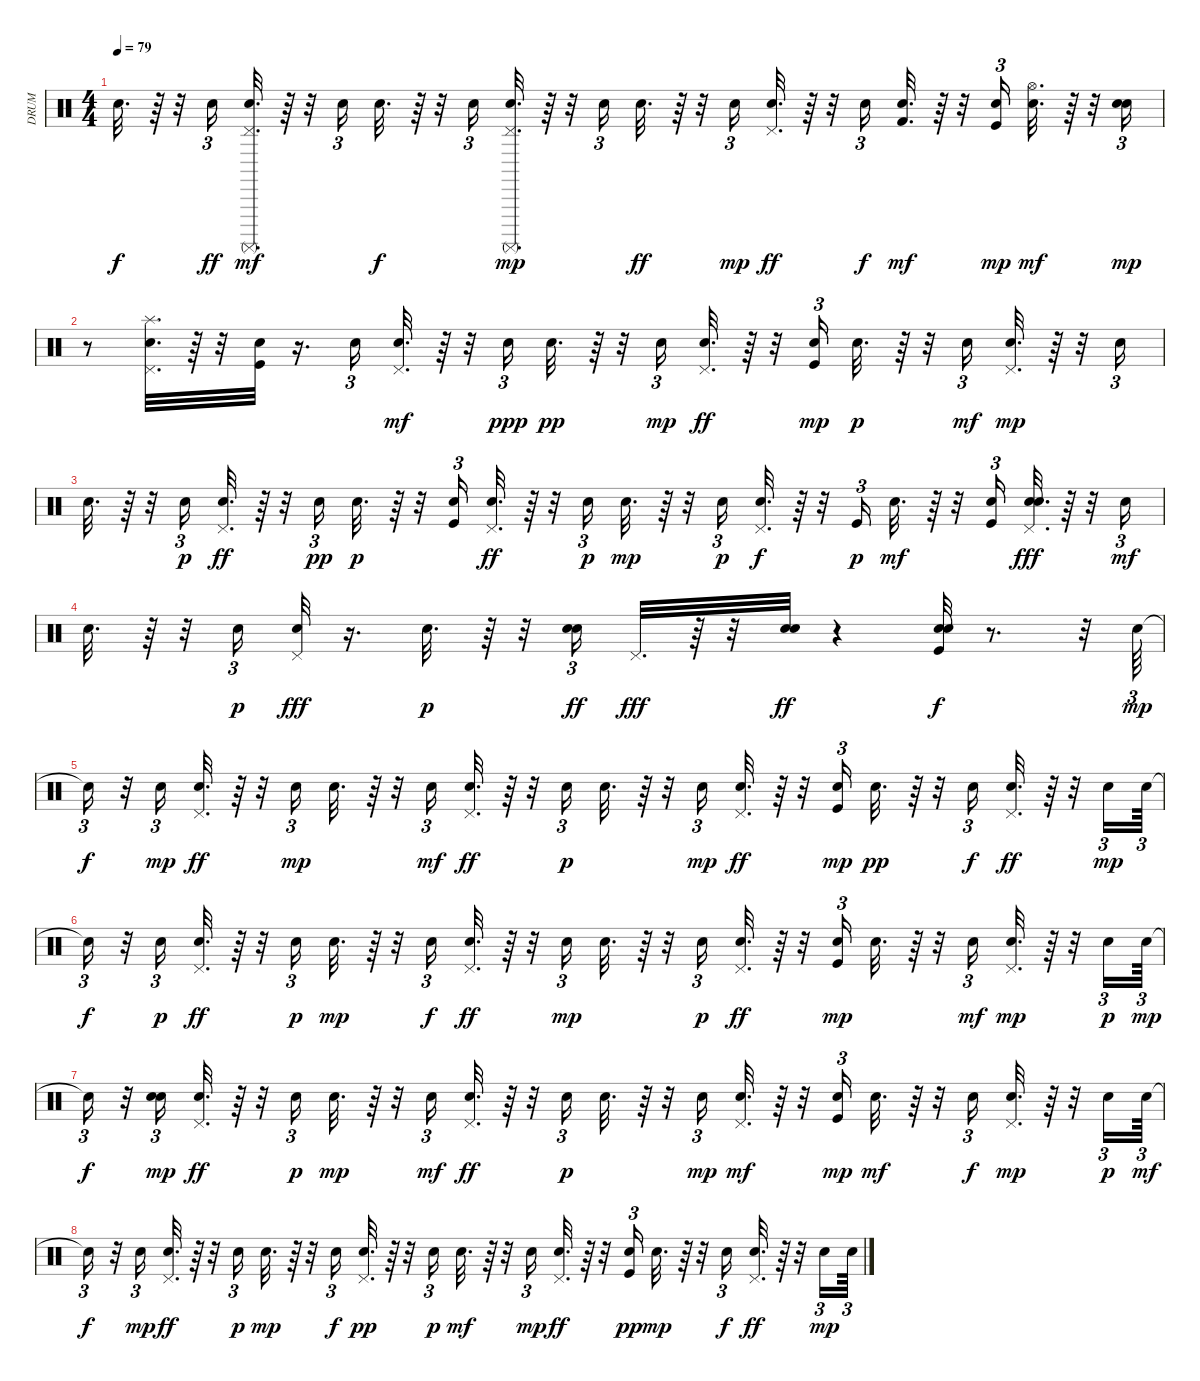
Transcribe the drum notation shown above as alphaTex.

\track ("DRUM" "DRUM") {instrument percussion}
\staff {score}
\articulation defaults
\ts (4 4)
\tempo 79
\clef neutral
\ks c "Hand Clap (hit)".32{d dy f}
r.64 r.32 "Hand Clap (hit)".16{tu (3 2) dy ff} ("Snare (hit) 2" "Surdo (mute)" "Pedal Hi-Hat (hit)").32{d dy mf} r.64 r.32 "Snare (hit) 2".16{tu (3 2)} "Hand Clap (hit)".32{d dy f} r.64 r.32 "Hand Clap (hit)".16{tu (3 2)} ("Surdo (mute)" "Pedal Hi-Hat (hit)" "Snare (hit) 2").32{d dy mp} r.64 r.32 "Snare (hit) 2".16{tu (3 2)} "Hand Clap (hit)".32{d dy ff} r.64 r.32 "Snare (hit) 2".16{tu (3 2) dy mp} ("Pedal Hi-Hat (hit)" "Hand Clap (hit)").32{d dy ff} r.64 r.32 "Hand Clap (hit)".16{tu (3 2) dy f} ("Kick (hit) 2" "Snare (hit) 2").32{d dy mf} r.64 r.32 ("Hand Clap (hit)" "Kick (hit)").16{tu (3 2) dy mp} ("Hand Clap (hit)" "Hi-Hat (open)").32{d dy mf} r.64 r.32 ("Hand Clap (hit)" "Snare (hit) 2").16{tu (3 2) dy mp} |
r.8 ("Hand Clap (hit)" "Pedal Hi-Hat (hit)" "Splash (hit)").32{d} r.64 r.32 ("Snare (hit) 2" "Kick (hit)").32 r.16{d} "Snare (hit) 2".16{tu (3 2)} ("Hand Clap (hit)" "Pedal Hi-Hat (hit)").32{d dy mf} r.64 r.32 "Snare (hit) 2".16{tu (3 2) dy ppp} "Snare (hit) 2".32{d dy pp} r.64 r.32 "Snare (hit) 2".16{tu (3 2) dy mp} ("Snare (hit) 2" "Pedal Hi-Hat (hit)").32{d dy ff} r.64 r.32 ("Snare (hit) 2" "Kick (hit)").16{tu (3 2) dy mp} "Snare (hit) 2".32{d dy p} r.64 r.32 "Hand Clap (hit)".16{tu (3 2) dy mf} ("Snare (hit) 2" "Pedal Hi-Hat (hit)").32{d dy mp} r.64 r.32 "Snare (hit) 2".16{tu (3 2)} |
"Snare (hit) 2".32{d} r.64 r.32 "Snare (hit) 2".16{tu (3 2) dy p} ("Pedal Hi-Hat (hit)" "Snare (hit) 2").32{d dy ff} r.64 r.32 "Snare (hit) 2".16{tu (3 2) dy pp} "Snare (hit) 2".32{d dy p} r.64 r.32 ("Hand Clap (hit)" "Kick (hit)").16{tu (3 2)} ("Snare (hit) 2" "Pedal Hi-Hat (hit)").32{d dy ff} r.64 r.32 "Snare (hit) 2".16{tu (3 2) dy p} "Snare (hit) 2".32{d dy mp} r.64 r.32 "Snare (hit) 2".16{tu (3 2) dy p} ("Pedal Hi-Hat (hit)" "Snare (hit) 2").32{d dy f} r.64 r.32 "Kick (hit)".16{tu (3 2) dy p} "Snare (hit) 2".32{d dy mf} r.64 r.32 ("Kick (hit)" "Hand Clap (hit)").16{tu (3 2)} ("Snare (hit) 2" "Hand Clap (hit)" "Pedal Hi-Hat (hit)").32{d dy fff} r.64 r.32 "Hand Clap (hit)".16{tu (3 2) dy mf} |
"Snare (hit) 2".32{d} r.64 r.32 "Snare (hit) 2".16{tu (3 2) dy p} ("Hand Clap (hit)" "Pedal Hi-Hat (hit)").32{dy fff} r.16{d} "Snare (hit) 2".32{d dy p} r.64 r.32 ("Snare (hit) 2" "Hand Clap (hit)").16{tu (3 2) dy ff} "Pedal Hi-Hat (hit)".32{d dy fff} r.64 r.32 ("Snare (hit) 2" "Hand Clap (hit)").32{dy ff} r.4 ("Kick (hit)" "Snare (hit) 2" "Hand Clap (hit)").32{dy f} r.8{d} r.32 "Snare (hit) 2".64{tu (3 2) dy mp} |
"Snare (hit)"{t}.16{tu (3 2) dy f} r.32 "Snare (hit) 2".16{tu (3 2) dy mp} ("Snare (hit) 2" "Pedal Hi-Hat (hit)").32{d dy ff} r.64 r.32 "Snare (hit) 2".16{tu (3 2) dy mp} "Snare (hit) 2".32{d} r.64 r.32 "Snare (hit) 2".16{tu (3 2) dy mf} ("Pedal Hi-Hat (hit)" "Snare (hit) 2").32{d dy ff} r.64 r.32 "Snare (hit) 2".16{tu (3 2) dy p} "Snare (hit) 2".32{d} r.64 r.32 "Snare (hit) 2".16{tu (3 2) dy mp} ("Snare (hit) 2" "Pedal Hi-Hat (hit)").32{d dy ff} r.64 r.32 ("Snare (hit) 2" "Kick (hit)").16{tu (3 2) dy mp} "Snare (hit) 2".32{d dy pp} r.64 r.32 "Hand Clap (hit)".16{tu (3 2) dy f} ("Snare (hit) 2" "Pedal Hi-Hat (hit)").32{d dy ff} r.64 r.32 "Snare (hit) 2".16{tu (3 2) dy mp} "Snare (hit) 2".64{tu (3 2)} |
"Snare (hit)"{t}.16{tu (3 2) dy f} r.32 "Snare (hit) 2".16{tu (3 2) dy p} ("Snare (hit) 2" "Pedal Hi-Hat (hit)").32{d dy ff} r.64 r.32 "Snare (hit) 2".16{tu (3 2) dy p} "Snare (hit) 2".32{d dy mp} r.64 r.32 "Snare (hit) 2".16{tu (3 2) dy f} ("Snare (hit) 2" "Pedal Hi-Hat (hit)").32{d dy ff} r.64 r.32 "Snare (hit) 2".16{tu (3 2) dy mp} "Snare (hit) 2".32{d} r.64 r.32 "Snare (hit) 2".16{tu (3 2) dy p} ("Snare (hit) 2" "Pedal Hi-Hat (hit)").32{d dy ff} r.64 r.32 ("Kick (hit)" "Snare (hit) 2").16{tu (3 2) dy mp} "Snare (hit) 2".32{d} r.64 r.32 "Hand Clap (hit)".16{tu (3 2) dy mf} ("Pedal Hi-Hat (hit)" "Snare (hit) 2").32{d dy mp} r.64 r.32 "Snare (hit) 2".16{tu (3 2) dy p} "Snare (hit) 2".64{tu (3 2) dy mp} |
"Snare (hit)"{t}.16{tu (3 2) dy f} r.32 ("Electric Snare (hit)" "Snare (hit) 2").16{tu (3 2) dy mp} ("Snare (hit) 2" "Pedal Hi-Hat (hit)").32{d dy ff} r.64 r.32 "Snare (hit) 2".16{tu (3 2) dy p} "Snare (hit) 2".32{d dy mp} r.64 r.32 "Snare (hit) 2".16{tu (3 2) dy mf} ("Snare (hit) 2" "Pedal Hi-Hat (hit)").32{d dy ff} r.64 r.32 "Snare (hit) 2".16{tu (3 2) dy p} "Snare (hit) 2".32{d} r.64 r.32 "Snare (hit) 2".16{tu (3 2) dy mp} ("Snare (hit) 2" "Pedal Hi-Hat (hit)").32{d dy mf} r.64 r.32 ("Snare (hit) 2" "Kick (hit)").16{tu (3 2) dy mp} "Snare (hit) 2".32{d dy mf} r.64 r.32 "Hand Clap (hit)".16{tu (3 2) dy f} ("Pedal Hi-Hat (hit)" "Snare (hit) 2").32{d dy mp} r.64 r.32 "Snare (hit) 2".16{tu (3 2) dy p} "Snare (hit) 2".64{tu (3 2) dy mf} |
"Snare (hit)"{t}.16{tu (3 2) dy f} r.32 "Snare (hit) 2".16{tu (3 2) dy mp} ("Pedal Hi-Hat (hit)" "Snare (hit) 2").32{d dy ff} r.64 r.32 "Snare (hit) 2".16{tu (3 2) dy p} "Snare (hit) 2".32{d dy mp} r.64 r.32 "Snare (hit) 2".16{tu (3 2) dy f} ("Snare (hit) 2" "Pedal Hi-Hat (hit)").32{d dy pp} r.64 r.32 "Snare (hit) 2".16{tu (3 2) dy p} "Snare (hit) 2".32{d dy mf} r.64 r.32 "Snare (hit) 2".16{tu (3 2) dy mp} ("Snare (hit) 2" "Pedal Hi-Hat (hit)").32{d dy ff} r.64 r.32 ("Snare (hit) 2" "Kick (hit)").16{tu (3 2) dy pp} "Snare (hit) 2".32{d dy mp} r.64 r.32 "Hand Clap (hit)".16{tu (3 2) dy f} ("Snare (hit) 2" "Pedal Hi-Hat (hit)").32{d dy ff} r.64 r.32 "Snare (hit) 2".16{tu (3 2) dy mp} "Snare (hit) 2".64{tu (3 2)}
